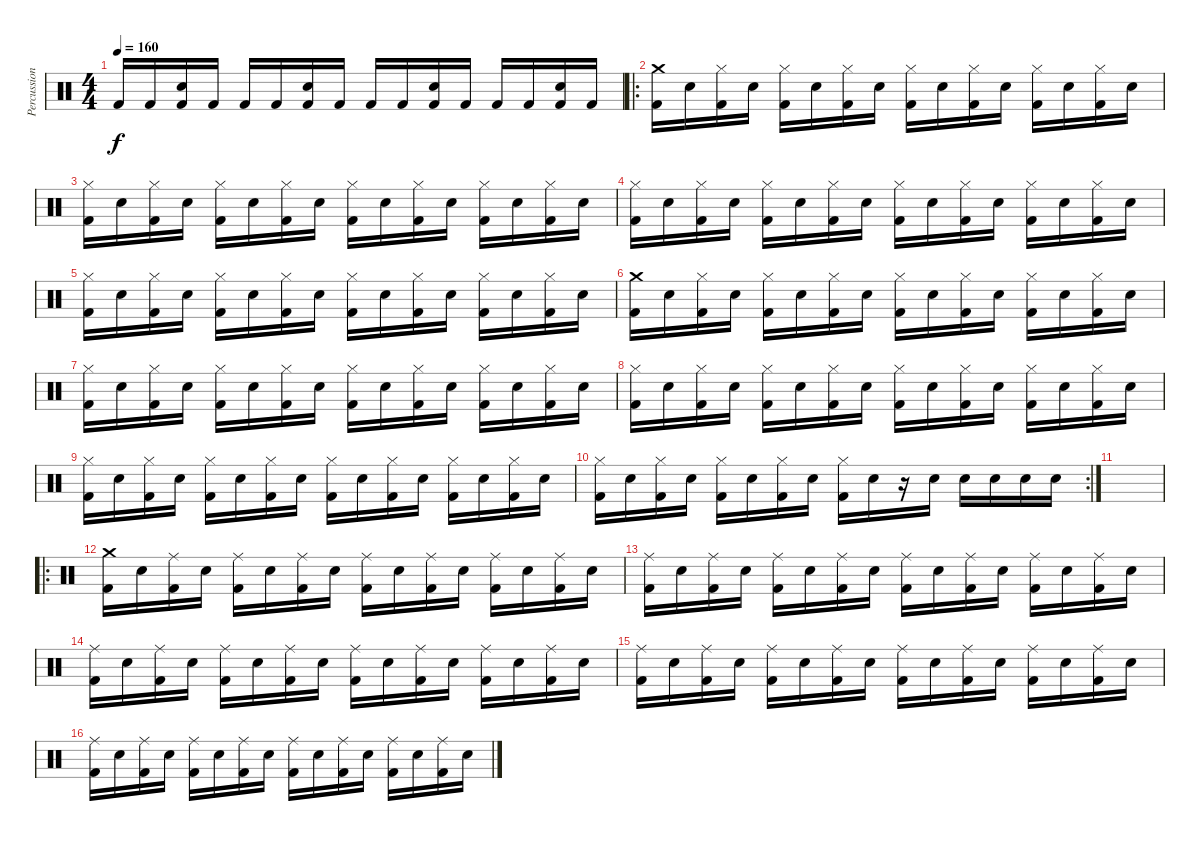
\track ("Percussions" "Percussion") {instrument percussion}
\staff {score}
\articulation defaults
\ts (4 4)
\tempo 160
\clef neutral
\ks c "Kick (hit) 2".16{dy f} "Kick (hit) 2".16
("Snare (hit) 2" "Kick (hit) 2").16 "Kick (hit) 2".16 "Kick (hit) 2".16 "Kick (hit) 2".16 ("Snare (hit) 2" "Kick (hit) 2").16 "Kick (hit) 2".16 "Kick (hit) 2".16 "Kick (hit) 2".16 ("Snare (hit) 2" "Kick (hit) 2").16 "Kick (hit) 2".16 "Kick (hit) 2".16 "Kick (hit) 2".16 ("Snare (hit) 2" "Kick (hit) 2").16 "Kick (hit) 2".16 |
\ro
("Crash medium (hit)" "Kick (hit) 2").16 "Snare (hit) 2".16 ("Hi-Hat (closed)" "Kick (hit) 2").16 "Snare (hit) 2".16 ("Hi-Hat (closed)" "Kick (hit) 2").16 "Snare (hit) 2".16 ("Hi-Hat (closed)" "Kick (hit) 2").16 "Snare (hit) 2".16 ("Hi-Hat (closed)" "Kick (hit) 2").16 "Snare (hit) 2".16 ("Hi-Hat (closed)" "Kick (hit) 2").16 "Snare (hit) 2".16 ("Hi-Hat (closed)" "Kick (hit) 2").16 "Snare (hit) 2".16 ("Hi-Hat (closed)" "Kick (hit) 2").16 "Snare (hit) 2".16 |
("Hi-Hat (closed)" "Kick (hit) 2").16 "Snare (hit) 2".16 ("Hi-Hat (closed)" "Kick (hit) 2").16 "Snare (hit) 2".16 ("Hi-Hat (closed)" "Kick (hit) 2").16 "Snare (hit) 2".16 ("Hi-Hat (closed)" "Kick (hit) 2").16 "Snare (hit) 2".16 ("Hi-Hat (closed)" "Kick (hit) 2").16 "Snare (hit) 2".16 ("Hi-Hat (closed)" "Kick (hit) 2").16 "Snare (hit) 2".16 ("Hi-Hat (closed)" "Kick (hit) 2").16 "Snare (hit) 2".16 ("Hi-Hat (closed)" "Kick (hit) 2").16 "Snare (hit) 2".16 |
("Hi-Hat (closed)" "Kick (hit) 2").16 "Snare (hit) 2".16 ("Hi-Hat (closed)" "Kick (hit) 2").16 "Snare (hit) 2".16 ("Hi-Hat (closed)" "Kick (hit) 2").16 "Snare (hit) 2".16 ("Hi-Hat (closed)" "Kick (hit) 2").16 "Snare (hit) 2".16 ("Hi-Hat (closed)" "Kick (hit) 2").16 "Snare (hit) 2".16 ("Hi-Hat (closed)" "Kick (hit) 2").16 "Snare (hit) 2".16 ("Hi-Hat (closed)" "Kick (hit) 2").16 "Snare (hit) 2".16 ("Hi-Hat (closed)" "Kick (hit) 2").16 "Snare (hit) 2".16 |
("Hi-Hat (closed)" "Kick (hit) 2").16 "Snare (hit) 2".16 ("Hi-Hat (closed)" "Kick (hit) 2").16 "Snare (hit) 2".16 ("Hi-Hat (closed)" "Kick (hit) 2").16 "Snare (hit) 2".16 ("Hi-Hat (closed)" "Kick (hit) 2").16 "Snare (hit) 2".16 ("Hi-Hat (closed)" "Kick (hit) 2").16 "Snare (hit) 2".16 ("Hi-Hat (closed)" "Kick (hit) 2").16 "Snare (hit) 2".16 ("Hi-Hat (closed)" "Kick (hit) 2").16 "Snare (hit) 2".16 ("Hi-Hat (closed)" "Kick (hit) 2").16 "Snare (hit) 2".16 |
("Crash medium (hit)" "Kick (hit) 2").16 "Snare (hit) 2".16 ("Hi-Hat (closed)" "Kick (hit) 2").16 "Snare (hit) 2".16 ("Hi-Hat (closed)" "Kick (hit) 2").16 "Snare (hit) 2".16 ("Hi-Hat (closed)" "Kick (hit) 2").16 "Snare (hit) 2".16 ("Hi-Hat (closed)" "Kick (hit) 2").16 "Snare (hit) 2".16 ("Hi-Hat (closed)" "Kick (hit) 2").16 "Snare (hit) 2".16 ("Hi-Hat (closed)" "Kick (hit) 2").16 "Snare (hit) 2".16 ("Hi-Hat (closed)" "Kick (hit) 2").16 "Snare (hit) 2".16 |
("Hi-Hat (closed)" "Kick (hit) 2").16 "Snare (hit) 2".16 ("Hi-Hat (closed)" "Kick (hit) 2").16 "Snare (hit) 2".16 ("Hi-Hat (closed)" "Kick (hit) 2").16 "Snare (hit) 2".16 ("Hi-Hat (closed)" "Kick (hit) 2").16 "Snare (hit) 2".16 ("Hi-Hat (closed)" "Kick (hit) 2").16 "Snare (hit) 2".16 ("Hi-Hat (closed)" "Kick (hit) 2").16 "Snare (hit) 2".16 ("Hi-Hat (closed)" "Kick (hit) 2").16 "Snare (hit) 2".16 ("Hi-Hat (closed)" "Kick (hit) 2").16 "Snare (hit) 2".16 |
("Hi-Hat (closed)" "Kick (hit) 2").16 "Snare (hit) 2".16 ("Hi-Hat (closed)" "Kick (hit) 2").16 "Snare (hit) 2".16 ("Hi-Hat (closed)" "Kick (hit) 2").16 "Snare (hit) 2".16 ("Hi-Hat (closed)" "Kick (hit) 2").16 "Snare (hit) 2".16 ("Hi-Hat (closed)" "Kick (hit) 2").16 "Snare (hit) 2".16 ("Hi-Hat (closed)" "Kick (hit) 2").16 "Snare (hit) 2".16 ("Hi-Hat (closed)" "Kick (hit) 2").16 "Snare (hit) 2".16 ("Hi-Hat (closed)" "Kick (hit) 2").16 "Snare (hit) 2".16 |
("Hi-Hat (closed)" "Kick (hit) 2").16 "Snare (hit) 2".16 ("Hi-Hat (closed)" "Kick (hit) 2").16 "Snare (hit) 2".16 ("Hi-Hat (closed)" "Kick (hit) 2").16 "Snare (hit) 2".16 ("Hi-Hat (closed)" "Kick (hit) 2").16 "Snare (hit) 2".16 ("Hi-Hat (closed)" "Kick (hit) 2").16 "Snare (hit) 2".16 ("Hi-Hat (closed)" "Kick (hit) 2").16 "Snare (hit) 2".16 ("Hi-Hat (closed)" "Kick (hit) 2").16 "Snare (hit) 2".16 ("Hi-Hat (closed)" "Kick (hit) 2").16 "Snare (hit) 2".16 |
\rc 2
("Hi-Hat (closed)" "Kick (hit) 2").16 "Snare (hit) 2".16 ("Hi-Hat (closed)" "Kick (hit) 2").16 "Snare (hit) 2".16 ("Hi-Hat (closed)" "Kick (hit) 2").16 "Snare (hit) 2".16 ("Hi-Hat (closed)" "Kick (hit) 2").16 "Snare (hit) 2".16 ("Hi-Hat (closed)" "Kick (hit) 2").16 "Snare (hit) 2".16 r.16 "Snare (hit) 2".16 "Snare (hit) 2".16 "Snare (hit) 2".16 "Snare (hit) 2".16 "Snare (hit) 2".16 |
|
\ro
("Crash medium (hit)" "Kick (hit) 2").16 "Snare (hit) 2".16 ("Ride (middle)" "Kick (hit) 2").16 "Snare (hit) 2".16 ("Ride (middle)" "Kick (hit) 2").16 "Snare (hit) 2".16 ("Ride (middle)" "Kick (hit) 2").16 "Snare (hit) 2".16 ("Ride (middle)" "Kick (hit) 2").16 "Snare (hit) 2".16 ("Ride (middle)" "Kick (hit) 2").16 "Snare (hit) 2".16 ("Ride (middle)" "Kick (hit) 2").16 "Snare (hit) 2".16 ("Ride (middle)" "Kick (hit) 2").16 "Snare (hit) 2".16 |
("Ride (middle)" "Kick (hit) 2").16 "Snare (hit) 2".16 ("Ride (middle)" "Kick (hit) 2").16 "Snare (hit) 2".16 ("Ride (middle)" "Kick (hit) 2").16 "Snare (hit) 2".16 ("Ride (middle)" "Kick (hit) 2").16 "Snare (hit) 2".16 ("Ride (middle)" "Kick (hit) 2").16 "Snare (hit) 2".16 ("Ride (middle)" "Kick (hit) 2").16 "Snare (hit) 2".16 ("Ride (middle)" "Kick (hit) 2").16 "Snare (hit) 2".16 ("Ride (middle)" "Kick (hit) 2").16 "Snare (hit) 2".16 |
("Ride (middle)" "Kick (hit) 2").16 "Snare (hit) 2".16 ("Ride (middle)" "Kick (hit) 2").16 "Snare (hit) 2".16 ("Ride (middle)" "Kick (hit) 2").16 "Snare (hit) 2".16 ("Ride (middle)" "Kick (hit) 2").16 "Snare (hit) 2".16 ("Ride (middle)" "Kick (hit) 2").16 "Snare (hit) 2".16 ("Ride (middle)" "Kick (hit) 2").16 "Snare (hit) 2".16 ("Ride (middle)" "Kick (hit) 2").16 "Snare (hit) 2".16 ("Ride (middle)" "Kick (hit) 2").16 "Snare (hit) 2".16 |
("Ride (middle)" "Kick (hit) 2").16 "Snare (hit) 2".16 ("Ride (middle)" "Kick (hit) 2").16 "Snare (hit) 2".16 ("Ride (middle)" "Kick (hit) 2").16 "Snare (hit) 2".16 ("Ride (middle)" "Kick (hit) 2").16 "Snare (hit) 2".16 ("Ride (middle)" "Kick (hit) 2").16 "Snare (hit) 2".16 ("Ride (middle)" "Kick (hit) 2").16 "Snare (hit) 2".16 ("Ride (middle)" "Kick (hit) 2").16 "Snare (hit) 2".16 ("Ride (middle)" "Kick (hit) 2").16 "Snare (hit) 2".16 |
("Ride (middle)" "Kick (hit) 2").16 "Snare (hit) 2".16 ("Ride (middle)" "Kick (hit) 2").16 "Snare (hit) 2".16 ("Ride (middle)" "Kick (hit) 2").16 "Snare (hit) 2".16 ("Ride (middle)" "Kick (hit) 2").16 "Snare (hit) 2".16 ("Ride (middle)" "Kick (hit) 2").16 "Snare (hit) 2".16 ("Ride (middle)" "Kick (hit) 2").16 "Snare (hit) 2".16 ("Ride (middle)" "Kick (hit) 2").16 "Snare (hit) 2".16 ("Ride (middle)" "Kick (hit) 2").16 "Snare (hit) 2".16
